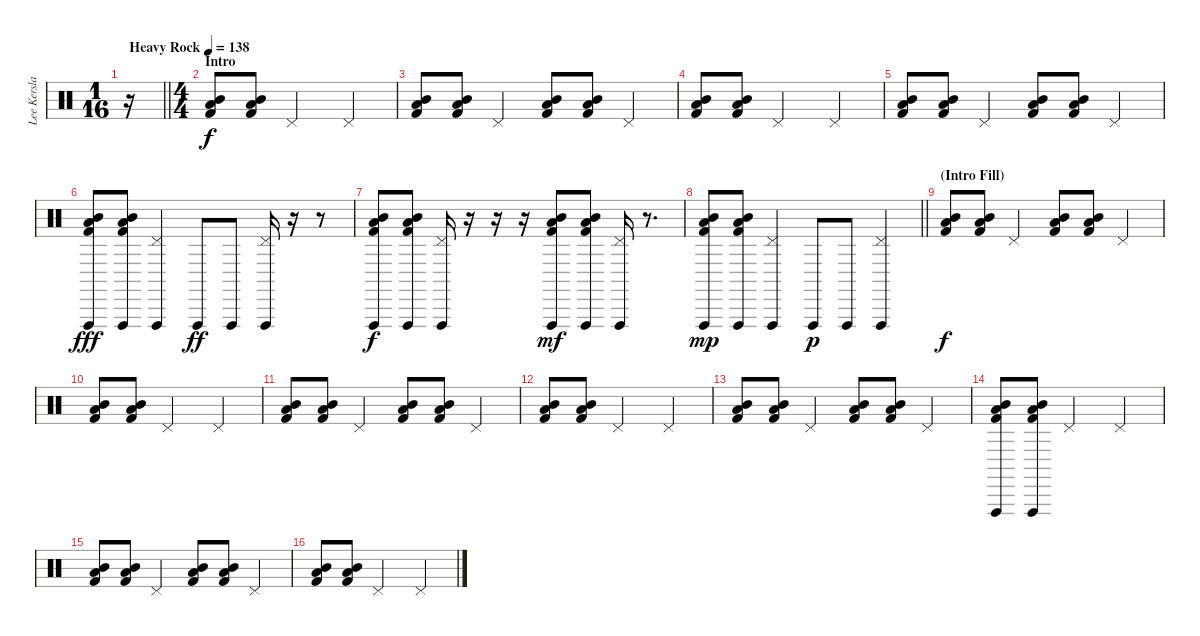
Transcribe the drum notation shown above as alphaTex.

\track ("Lee Kerslake" "Lee Kersla") {instrument percussion}
\staff {score}
\articulation defaults
\ts (1 16)
\tempo (138 "Heavy Rock")
\clef neutral
\barLineRight lightlight
\ks c
r.16{dy f} |
\ts (4 4)
\section ("" "Intro")
("Mid Tom (hit)" "Low Tom (hit)" "Kick (hit) 2").8 ("Mid Tom (hit)" "Low Tom (hit)" "Kick (hit) 2").8 "Pedal Hi-Hat (hit)".2 "Pedal Hi-Hat (hit)".4 |
("Mid Tom (hit)" "Low Tom (hit)" "Kick (hit) 2").8 ("Mid Tom (hit)" "Low Tom (hit)" "Kick (hit) 2").8 "Pedal Hi-Hat (hit)".4 ("Mid Tom (hit)" "Low Tom (hit)" "Kick (hit) 2").8 ("Mid Tom (hit)" "Low Tom (hit)" "Kick (hit) 2").8 "Pedal Hi-Hat (hit)".4 |
("Mid Tom (hit)" "Low Tom (hit)" "Kick (hit) 2").8 ("Mid Tom (hit)" "Low Tom (hit)" "Kick (hit) 2").8 "Pedal Hi-Hat (hit)".2 "Pedal Hi-Hat (hit)".4 |
("Mid Tom (hit)" "Low Tom (hit)" "Kick (hit) 2").8 ("Mid Tom (hit)" "Low Tom (hit)" "Kick (hit) 2").8 "Pedal Hi-Hat (hit)".4 ("Mid Tom (hit)" "Low Tom (hit)" "Kick (hit) 2").8 ("Mid Tom (hit)" "Low Tom (hit)" "Kick (hit) 2").8 "Pedal Hi-Hat (hit)".4 |
("Mid Tom (hit)" "Low Tom (hit)" "Vibraslap (hit)" "Kick (hit) 2").8{dy fff} ("Mid Tom (hit)" "Low Tom (hit)" "Vibraslap (hit)" "Kick (hit) 2").8 ("Pedal Hi-Hat (hit)" "Vibraslap (hit)").4 "Vibraslap (hit)".8{dy ff balance 0} "Vibraslap (hit)".8 ("Pedal Hi-Hat (hit)" "Vibraslap (hit)").16{balance 16} r.16{balance 0} r.8 |
("Mid Tom (hit)" "Low Tom (hit)" "Vibraslap (hit)" "Kick (hit) 2").8{dy f balance 16} ("Mid Tom (hit)" "Low Tom (hit)" "Vibraslap (hit)" "Kick (hit) 2").8 ("Pedal Hi-Hat (hit)" "Vibraslap (hit)").16{balance 0} r.16 r.16 r.16 ("Mid Tom (hit)" "Low Tom (hit)" "Vibraslap (hit)" "Kick (hit) 2").8{dy mf balance 16} ("Mid Tom (hit)" "Low Tom (hit)" "Vibraslap (hit)" "Kick (hit) 2").8 ("Pedal Hi-Hat (hit)" "Vibraslap (hit)").16{balance 0} r.8{d} |
\barLineRight lightlight
("Mid Tom (hit)" "Low Tom (hit)" "Vibraslap (hit)" "Kick (hit) 2").8{dy mp balance 16} ("Mid Tom (hit)" "Low Tom (hit)" "Vibraslap (hit)" "Kick (hit) 2").8 ("Pedal Hi-Hat (hit)" "Vibraslap (hit)").4{balance 0} "Vibraslap (hit)".8{dy p balance 16} "Vibraslap (hit)".8 ("Pedal Hi-Hat (hit)" "Vibraslap (hit)").4 |
\section ("" "(Intro Fill)")
("Mid Tom (hit)" "Low Tom (hit)" "Kick (hit) 2").8{dy f balance 8} ("Mid Tom (hit)" "Low Tom (hit)" "Kick (hit) 2").8 "Pedal Hi-Hat (hit)".4 ("Mid Tom (hit)" "Low Tom (hit)" "Kick (hit) 2").8 ("Mid Tom (hit)" "Low Tom (hit)" "Kick (hit) 2").8 "Pedal Hi-Hat (hit)".4 |
("Mid Tom (hit)" "Low Tom (hit)" "Kick (hit) 2").8 ("Mid Tom (hit)" "Low Tom (hit)" "Kick (hit) 2").8 "Pedal Hi-Hat (hit)".2 "Pedal Hi-Hat (hit)".4 |
("Mid Tom (hit)" "Low Tom (hit)" "Kick (hit) 2").8 ("Mid Tom (hit)" "Low Tom (hit)" "Kick (hit) 2").8 "Pedal Hi-Hat (hit)".4 ("Mid Tom (hit)" "Low Tom (hit)" "Kick (hit) 2").8 ("Mid Tom (hit)" "Low Tom (hit)" "Kick (hit) 2").8 "Pedal Hi-Hat (hit)".4 |
("Mid Tom (hit)" "Low Tom (hit)" "Kick (hit) 2").8 ("Mid Tom (hit)" "Low Tom (hit)" "Kick (hit) 2").8 "Pedal Hi-Hat (hit)".2 "Pedal Hi-Hat (hit)".4 |
("Mid Tom (hit)" "Low Tom (hit)" "Kick (hit) 2").8 ("Mid Tom (hit)" "Low Tom (hit)" "Kick (hit) 2").8 "Pedal Hi-Hat (hit)".4 ("Mid Tom (hit)" "Low Tom (hit)" "Kick (hit) 2").8 ("Mid Tom (hit)" "Low Tom (hit)" "Kick (hit) 2").8 "Pedal Hi-Hat (hit)".4 |
("Mid Tom (hit)" "Low Tom (hit)" "Vibraslap (hit)" "Kick (hit) 2").8 ("Mid Tom (hit)" "Low Tom (hit)" "Vibraslap (hit)" "Kick (hit) 2").8 "Pedal Hi-Hat (hit)".2 "Pedal Hi-Hat (hit)".4 |
("Mid Tom (hit)" "Low Tom (hit)" "Kick (hit) 2").8 ("Mid Tom (hit)" "Low Tom (hit)" "Kick (hit) 2").8 "Pedal Hi-Hat (hit)".4 ("Mid Tom (hit)" "Low Tom (hit)" "Kick (hit) 2").8 ("Mid Tom (hit)" "Low Tom (hit)" "Kick (hit) 2").8 "Pedal Hi-Hat (hit)".4 |
("Mid Tom (hit)" "Low Tom (hit)" "Kick (hit) 2").8 ("Mid Tom (hit)" "Low Tom (hit)" "Kick (hit) 2").8 "Pedal Hi-Hat (hit)".2 "Pedal Hi-Hat (hit)".4
